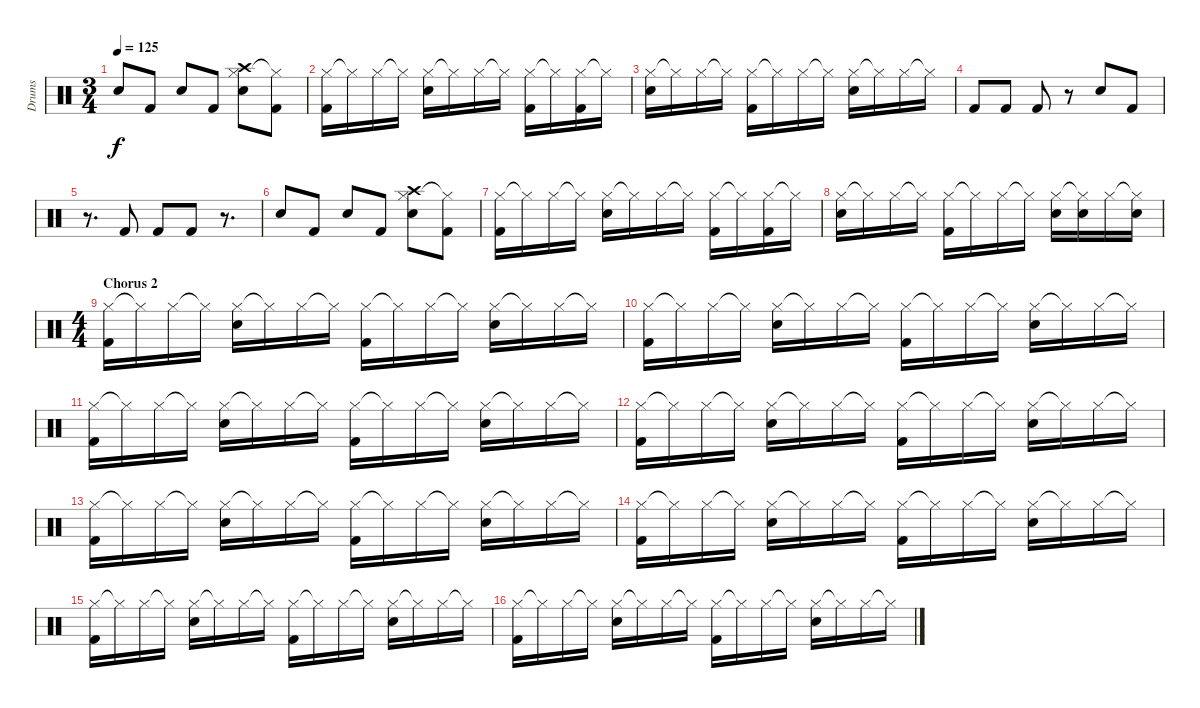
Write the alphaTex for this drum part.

\track ("Drums" "Drums") {instrument percussion}
\staff {score}
\articulation defaults
\ts (3 4)
\tempo 125
\clef neutral
\ks c "Snare (hit) 2".8{dy f} "Kick (hit) 2".8 "Snare (hit) 2".8 "Kick (hit) 2".8
("Hi-Hat (closed)" "Snare (hit) 2" "Crash high (hit)").8 ("Hi-Hat (closed)"{t} "Kick (hit) 2").8 |
("Hi-Hat (closed)" "Kick (hit) 2").16 "Hi-Hat (closed)"{t}.16 "Hi-Hat (closed)".16 "Hi-Hat (closed)"{t}.16 ("Hi-Hat (closed)" "Snare (hit) 2").16 "Hi-Hat (closed)"{t}.16 "Hi-Hat (closed)".16 "Hi-Hat (closed)"{t}.16 ("Hi-Hat (closed)" "Kick (hit) 2").16 "Hi-Hat (closed)"{t}.16 ("Hi-Hat (closed)" "Kick (hit) 2").16 "Hi-Hat (closed)"{t}.16 |
("Hi-Hat (closed)" "Snare (hit) 2").16 "Hi-Hat (closed)"{t}.16 "Hi-Hat (closed)".16 "Hi-Hat (closed)"{t}.16 ("Hi-Hat (closed)" "Kick (hit) 2").16 "Hi-Hat (closed)"{t}.16 "Hi-Hat (closed)".16 "Hi-Hat (closed)"{t}.16 ("Hi-Hat (closed)" "Snare (hit) 2").16 "Hi-Hat (closed)"{t}.16 "Hi-Hat (closed)".16 "Hi-Hat (closed)"{t}.16 |
"Kick (hit) 2".8 "Kick (hit) 2".8 "Kick (hit) 2".8 r.8 "Snare (hit) 2".8 "Kick (hit) 2".8 |
r.8{d} "Kick (hit) 2".8 "Kick (hit) 2".8 "Kick (hit) 2".8 r.8{d} |
"Snare (hit) 2".8 "Kick (hit) 2".8 "Snare (hit) 2".8 "Kick (hit) 2".8 ("Hi-Hat (closed)" "Snare (hit) 2" "Crash high (hit)").8 ("Hi-Hat (closed)"{t} "Kick (hit) 2").8 |
("Hi-Hat (closed)" "Kick (hit) 2").16 "Hi-Hat (closed)"{t}.16 "Hi-Hat (closed)".16 "Hi-Hat (closed)"{t}.16 ("Hi-Hat (closed)" "Snare (hit) 2").16 "Hi-Hat (closed)"{t}.16 "Hi-Hat (closed)".16 "Hi-Hat (closed)"{t}.16 ("Hi-Hat (closed)" "Kick (hit) 2").16 "Hi-Hat (closed)"{t}.16 ("Hi-Hat (closed)" "Kick (hit) 2").16 "Hi-Hat (closed)"{t}.16 |
("Hi-Hat (closed)" "Snare (hit) 2").16 "Hi-Hat (closed)"{t}.16 "Hi-Hat (closed)".16 "Hi-Hat (closed)"{t}.16 ("Hi-Hat (closed)" "Kick (hit) 2").16 "Hi-Hat (closed)"{t}.16 "Hi-Hat (closed)".16 "Hi-Hat (closed)"{t}.16 ("Hi-Hat (closed)" "Snare (hit) 2").16 ("Hi-Hat (closed)"{t} "Snare (hit) 2").16 "Hi-Hat (closed)".16 ("Hi-Hat (closed)"{t} "Snare (hit) 2").16 |
\ts (4 4)
\section ("" "Chorus 2")
("Hi-Hat (closed)" "Kick (hit) 2").16 "Hi-Hat (closed)"{t}.16 "Hi-Hat (closed)".16 "Hi-Hat (closed)"{t}.16 ("Hi-Hat (closed)" "Snare (hit) 2").16 "Hi-Hat (closed)"{t}.16 "Hi-Hat (closed)".16 "Hi-Hat (closed)"{t}.16 ("Hi-Hat (closed)" "Kick (hit) 2").16 "Hi-Hat (closed)"{t}.16 "Hi-Hat (closed)".16 "Hi-Hat (closed)"{t}.16 ("Hi-Hat (closed)" "Snare (hit) 2").16 "Hi-Hat (closed)"{t}.16 "Hi-Hat (closed)".16 "Hi-Hat (closed)"{t}.16 |
("Hi-Hat (closed)" "Kick (hit) 2").16 "Hi-Hat (closed)"{t}.16 "Hi-Hat (closed)".16 "Hi-Hat (closed)"{t}.16 ("Hi-Hat (closed)" "Snare (hit) 2").16 "Hi-Hat (closed)"{t}.16 "Hi-Hat (closed)".16 "Hi-Hat (closed)"{t}.16 ("Hi-Hat (closed)" "Kick (hit) 2").16 "Hi-Hat (closed)"{t}.16 "Hi-Hat (closed)".16 "Hi-Hat (closed)"{t}.16 ("Hi-Hat (closed)" "Snare (hit) 2").16 "Hi-Hat (closed)"{t}.16 "Hi-Hat (closed)".16 "Hi-Hat (closed)"{t}.16 |
("Hi-Hat (closed)" "Kick (hit) 2").16 "Hi-Hat (closed)"{t}.16 "Hi-Hat (closed)".16 "Hi-Hat (closed)"{t}.16 ("Hi-Hat (closed)" "Snare (hit) 2").16 "Hi-Hat (closed)"{t}.16 "Hi-Hat (closed)".16 "Hi-Hat (closed)"{t}.16 ("Hi-Hat (closed)" "Kick (hit) 2").16 "Hi-Hat (closed)"{t}.16 "Hi-Hat (closed)".16 "Hi-Hat (closed)"{t}.16 ("Hi-Hat (closed)" "Snare (hit) 2").16 "Hi-Hat (closed)"{t}.16 "Hi-Hat (closed)".16 "Hi-Hat (closed)"{t}.16 |
("Hi-Hat (closed)" "Kick (hit) 2").16 "Hi-Hat (closed)"{t}.16 "Hi-Hat (closed)".16 "Hi-Hat (closed)"{t}.16 ("Hi-Hat (closed)" "Snare (hit) 2").16 "Hi-Hat (closed)"{t}.16 "Hi-Hat (closed)".16 "Hi-Hat (closed)"{t}.16 ("Hi-Hat (closed)" "Kick (hit) 2").16 "Hi-Hat (closed)"{t}.16 "Hi-Hat (closed)".16 "Hi-Hat (closed)"{t}.16 ("Hi-Hat (closed)" "Snare (hit) 2").16 "Hi-Hat (closed)"{t}.16 "Hi-Hat (closed)".16 "Hi-Hat (closed)"{t}.16 |
("Hi-Hat (closed)" "Kick (hit) 2").16 "Hi-Hat (closed)"{t}.16 "Hi-Hat (closed)".16 "Hi-Hat (closed)"{t}.16 ("Hi-Hat (closed)" "Snare (hit) 2").16 "Hi-Hat (closed)"{t}.16 "Hi-Hat (closed)".16 "Hi-Hat (closed)"{t}.16 ("Hi-Hat (closed)" "Kick (hit) 2").16 "Hi-Hat (closed)"{t}.16 "Hi-Hat (closed)".16 "Hi-Hat (closed)"{t}.16 ("Hi-Hat (closed)" "Snare (hit) 2").16 "Hi-Hat (closed)"{t}.16 "Hi-Hat (closed)".16 "Hi-Hat (closed)"{t}.16 |
("Hi-Hat (closed)" "Kick (hit) 2").16 "Hi-Hat (closed)"{t}.16 "Hi-Hat (closed)".16 "Hi-Hat (closed)"{t}.16 ("Hi-Hat (closed)" "Snare (hit) 2").16 "Hi-Hat (closed)"{t}.16 "Hi-Hat (closed)".16 "Hi-Hat (closed)"{t}.16 ("Hi-Hat (closed)" "Kick (hit) 2").16 "Hi-Hat (closed)"{t}.16 "Hi-Hat (closed)".16 "Hi-Hat (closed)"{t}.16 ("Hi-Hat (closed)" "Snare (hit) 2").16 "Hi-Hat (closed)"{t}.16 "Hi-Hat (closed)".16 "Hi-Hat (closed)"{t}.16 |
("Hi-Hat (closed)" "Kick (hit) 2").16 "Hi-Hat (closed)"{t}.16 "Hi-Hat (closed)".16 "Hi-Hat (closed)"{t}.16 ("Hi-Hat (closed)" "Snare (hit) 2").16 "Hi-Hat (closed)"{t}.16 "Hi-Hat (closed)".16 "Hi-Hat (closed)"{t}.16 ("Hi-Hat (closed)" "Kick (hit) 2").16 "Hi-Hat (closed)"{t}.16 "Hi-Hat (closed)".16 "Hi-Hat (closed)"{t}.16 ("Hi-Hat (closed)" "Snare (hit) 2").16 "Hi-Hat (closed)"{t}.16 "Hi-Hat (closed)".16 "Hi-Hat (closed)"{t}.16 |
("Hi-Hat (closed)" "Kick (hit) 2").16 "Hi-Hat (closed)"{t}.16 "Hi-Hat (closed)".16 "Hi-Hat (closed)"{t}.16 ("Hi-Hat (closed)" "Snare (hit) 2").16 "Hi-Hat (closed)"{t}.16 "Hi-Hat (closed)".16 "Hi-Hat (closed)"{t}.16 ("Hi-Hat (closed)" "Kick (hit) 2").16 "Hi-Hat (closed)"{t}.16 "Hi-Hat (closed)".16 "Hi-Hat (closed)"{t}.16 ("Hi-Hat (closed)" "Snare (hit) 2").16 "Hi-Hat (closed)"{t}.16 "Hi-Hat (closed)".16 "Hi-Hat (closed)"{t}.16
